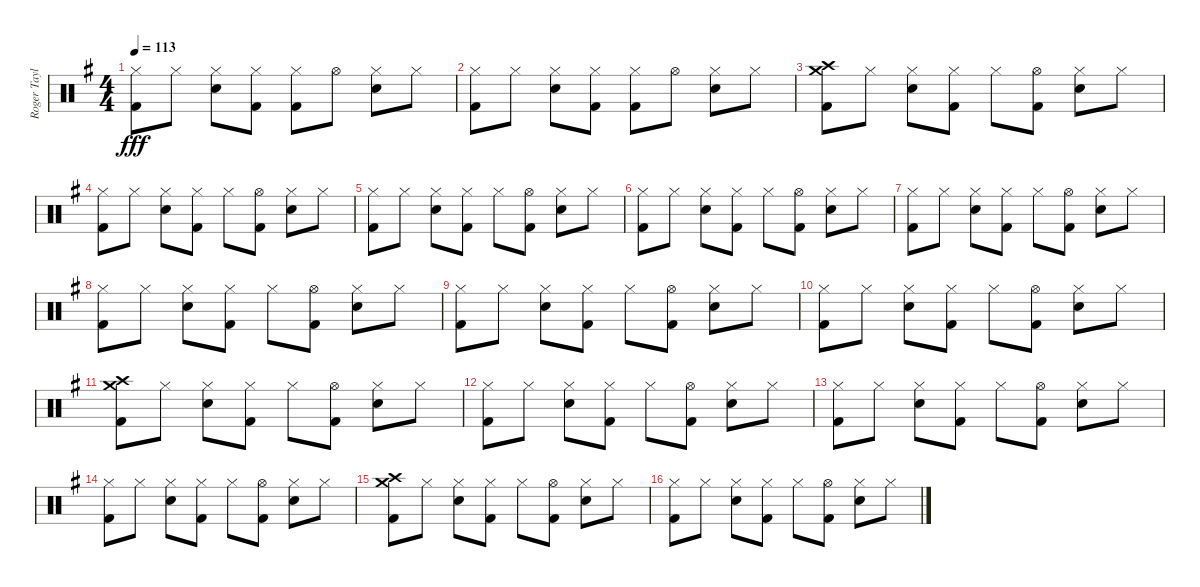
\track ("Roger Taylor" "Roger Tayl") {instrument percussion}
\staff {score}
\articulation defaults
\ts (4 4)
\tempo 113
\clef neutral
\ks g
("Hi-Hat (closed)" "Kick (hit) 2").8{dy fff} "Hi-Hat (closed)".8 ("Hi-Hat (closed)" "Snare (hit) 2").8 ("Hi-Hat (closed)" "Kick (hit) 2").8 ("Hi-Hat (closed)" "Kick (hit) 2").8 "Hi-Hat (open)".8 ("Hi-Hat (closed)" "Snare (hit) 2").8 "Hi-Hat (closed)".8 |
("Hi-Hat (closed)" "Kick (hit) 2").8 "Hi-Hat (closed)".8 ("Hi-Hat (closed)" "Snare (hit) 2").8 ("Hi-Hat (closed)" "Kick (hit) 2").8 ("Hi-Hat (closed)" "Kick (hit) 2").8 "Hi-Hat (open)".8 ("Hi-Hat (closed)" "Snare (hit) 2").8 "Hi-Hat (closed)".8 |
("Crash high (hit)" "Crash medium (hit)" "Kick (hit) 2").8 "Hi-Hat (closed)".8 ("Hi-Hat (closed)" "Snare (hit) 2").8 ("Hi-Hat (closed)" "Kick (hit) 2").8 "Hi-Hat (closed)".8 ("Hi-Hat (open)" "Kick (hit) 2").8 ("Hi-Hat (closed)" "Snare (hit) 2").8 "Hi-Hat (closed)".8 |
("Hi-Hat (closed)" "Kick (hit) 2").8 "Hi-Hat (closed)".8 ("Hi-Hat (closed)" "Snare (hit) 2").8 ("Hi-Hat (closed)" "Kick (hit) 2").8 "Hi-Hat (closed)".8 ("Hi-Hat (open)" "Kick (hit) 2").8 ("Hi-Hat (closed)" "Snare (hit) 2").8 "Hi-Hat (closed)".8 |
("Hi-Hat (closed)" "Kick (hit) 2").8 "Hi-Hat (closed)".8 ("Hi-Hat (closed)" "Snare (hit) 2").8 ("Hi-Hat (closed)" "Kick (hit) 2").8 "Hi-Hat (closed)".8 ("Hi-Hat (open)" "Kick (hit) 2").8 ("Hi-Hat (closed)" "Snare (hit) 2").8 "Hi-Hat (closed)".8 |
("Hi-Hat (closed)" "Kick (hit) 2").8 "Hi-Hat (closed)".8 ("Hi-Hat (closed)" "Snare (hit) 2").8 ("Hi-Hat (closed)" "Kick (hit) 2").8 "Hi-Hat (closed)".8 ("Hi-Hat (open)" "Kick (hit) 2").8 ("Hi-Hat (closed)" "Snare (hit) 2").8 "Hi-Hat (closed)".8 |
("Hi-Hat (closed)" "Kick (hit) 2").8 "Hi-Hat (closed)".8 ("Hi-Hat (closed)" "Snare (hit) 2").8 ("Hi-Hat (closed)" "Kick (hit) 2").8 "Hi-Hat (closed)".8 ("Hi-Hat (open)" "Kick (hit) 2").8 ("Hi-Hat (closed)" "Snare (hit) 2").8 "Hi-Hat (closed)".8 |
("Hi-Hat (closed)" "Kick (hit) 2").8 "Hi-Hat (closed)".8 ("Hi-Hat (closed)" "Snare (hit) 2").8 ("Hi-Hat (closed)" "Kick (hit) 2").8 "Hi-Hat (closed)".8 ("Hi-Hat (open)" "Kick (hit) 2").8 ("Hi-Hat (closed)" "Snare (hit) 2").8 "Hi-Hat (closed)".8 |
("Hi-Hat (closed)" "Kick (hit) 2").8 "Hi-Hat (closed)".8 ("Hi-Hat (closed)" "Snare (hit) 2").8 ("Hi-Hat (closed)" "Kick (hit) 2").8 "Hi-Hat (closed)".8 ("Hi-Hat (open)" "Kick (hit) 2").8 ("Hi-Hat (closed)" "Snare (hit) 2").8 "Hi-Hat (closed)".8 |
("Hi-Hat (closed)" "Kick (hit) 2").8 "Hi-Hat (closed)".8 ("Hi-Hat (closed)" "Snare (hit) 2").8 ("Hi-Hat (closed)" "Kick (hit) 2").8 "Hi-Hat (closed)".8 ("Hi-Hat (open)" "Kick (hit) 2").8 ("Hi-Hat (closed)" "Snare (hit) 2").8 "Hi-Hat (closed)".8 |
("Crash high (hit)" "Crash medium (hit)" "Kick (hit) 2").8 "Hi-Hat (closed)".8 ("Hi-Hat (closed)" "Snare (hit) 2").8 ("Hi-Hat (closed)" "Kick (hit) 2").8 "Hi-Hat (closed)".8 ("Hi-Hat (open)" "Kick (hit) 2").8 ("Hi-Hat (closed)" "Snare (hit) 2").8 "Hi-Hat (closed)".8 |
("Hi-Hat (closed)" "Kick (hit) 2").8 "Hi-Hat (closed)".8 ("Hi-Hat (closed)" "Snare (hit) 2").8 ("Hi-Hat (closed)" "Kick (hit) 2").8 "Hi-Hat (closed)".8 ("Hi-Hat (open)" "Kick (hit) 2").8 ("Hi-Hat (closed)" "Snare (hit) 2").8 "Hi-Hat (closed)".8 |
("Hi-Hat (closed)" "Kick (hit) 2").8 "Hi-Hat (closed)".8 ("Hi-Hat (closed)" "Snare (hit) 2").8 ("Hi-Hat (closed)" "Kick (hit) 2").8 "Hi-Hat (closed)".8 ("Hi-Hat (open)" "Kick (hit) 2").8 ("Hi-Hat (closed)" "Snare (hit) 2").8 "Hi-Hat (closed)".8 |
("Hi-Hat (closed)" "Kick (hit) 2").8 "Hi-Hat (closed)".8 ("Hi-Hat (closed)" "Snare (hit) 2").8 ("Hi-Hat (closed)" "Kick (hit) 2").8 "Hi-Hat (closed)".8 ("Hi-Hat (open)" "Kick (hit) 2").8 ("Hi-Hat (closed)" "Snare (hit) 2").8 "Hi-Hat (closed)".8 |
("Crash high (hit)" "Crash medium (hit)" "Kick (hit) 2").8 "Hi-Hat (closed)".8 ("Hi-Hat (closed)" "Snare (hit) 2").8 ("Hi-Hat (closed)" "Kick (hit) 2").8 "Hi-Hat (closed)".8 ("Hi-Hat (open)" "Kick (hit) 2").8 ("Hi-Hat (closed)" "Snare (hit) 2").8 "Hi-Hat (closed)".8 |
("Hi-Hat (closed)" "Kick (hit) 2").8 "Hi-Hat (closed)".8 ("Hi-Hat (closed)" "Snare (hit) 2").8 ("Hi-Hat (closed)" "Kick (hit) 2").8 "Hi-Hat (closed)".8 ("Hi-Hat (open)" "Kick (hit) 2").8 ("Hi-Hat (closed)" "Snare (hit) 2").8 "Hi-Hat (closed)".8
